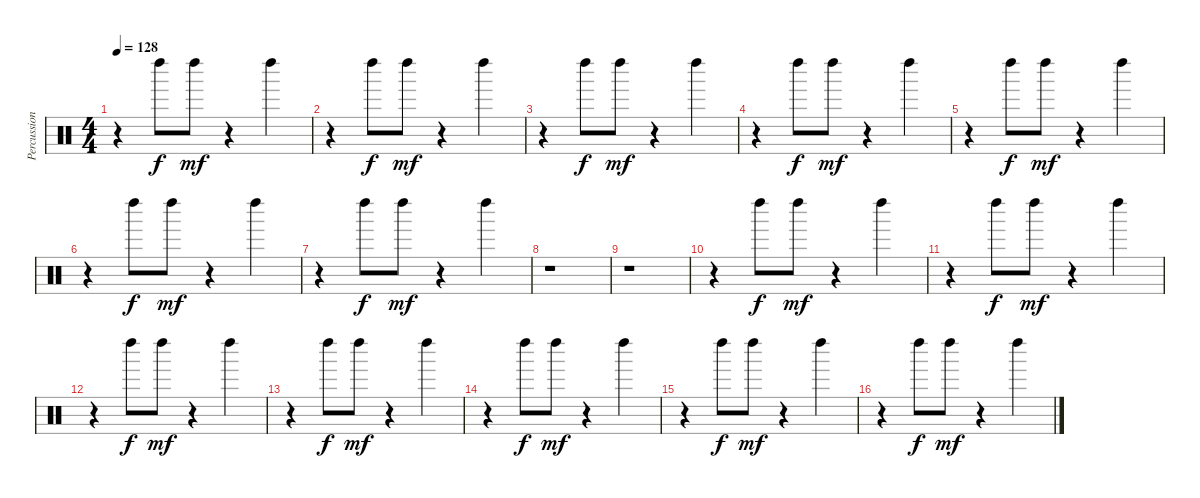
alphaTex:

\track ("Percussion" "Percussion") {instrument percussion}
\staff {score}
\articulation defaults
\ts (4 4)
\tempo 128
\clef neutral
\ks c
r.4{dy mf} "Left Maraca (hit)".8{dy f} "Left Maraca (hit)".8{dy mf} r.4 "Left Maraca (hit)".4 |
r.4 "Left Maraca (hit)".8{dy f} "Left Maraca (hit)".8{dy mf} r.4 "Left Maraca (hit)".4 |
r.4 "Left Maraca (hit)".8{dy f} "Left Maraca (hit)".8{dy mf} r.4 "Left Maraca (hit)".4 |
r.4 "Left Maraca (hit)".8{dy f} "Left Maraca (hit)".8{dy mf} r.4 "Left Maraca (hit)".4 |
r.4 "Left Maraca (hit)".8{dy f} "Left Maraca (hit)".8{dy mf} r.4 "Left Maraca (hit)".4 |
r.4 "Left Maraca (hit)".8{dy f} "Left Maraca (hit)".8{dy mf} r.4 "Left Maraca (hit)".4 |
r.4 "Left Maraca (hit)".8{dy f} "Left Maraca (hit)".8{dy mf} r.4 "Left Maraca (hit)".4 |
r.1 |
r.1 |
r.4 "Left Maraca (hit)".8{dy f} "Left Maraca (hit)".8{dy mf} r.4 "Left Maraca (hit)".4 |
r.4 "Left Maraca (hit)".8{dy f} "Left Maraca (hit)".8{dy mf} r.4 "Left Maraca (hit)".4 |
r.4 "Left Maraca (hit)".8{dy f} "Left Maraca (hit)".8{dy mf} r.4 "Left Maraca (hit)".4 |
r.4 "Left Maraca (hit)".8{dy f} "Left Maraca (hit)".8{dy mf} r.4 "Left Maraca (hit)".4 |
r.4 "Left Maraca (hit)".8{dy f} "Left Maraca (hit)".8{dy mf} r.4 "Left Maraca (hit)".4 |
r.4 "Left Maraca (hit)".8{dy f} "Left Maraca (hit)".8{dy mf} r.4 "Left Maraca (hit)".4 |
r.4 "Left Maraca (hit)".8{dy f} "Left Maraca (hit)".8{dy mf} r.4 "Left Maraca (hit)".4
